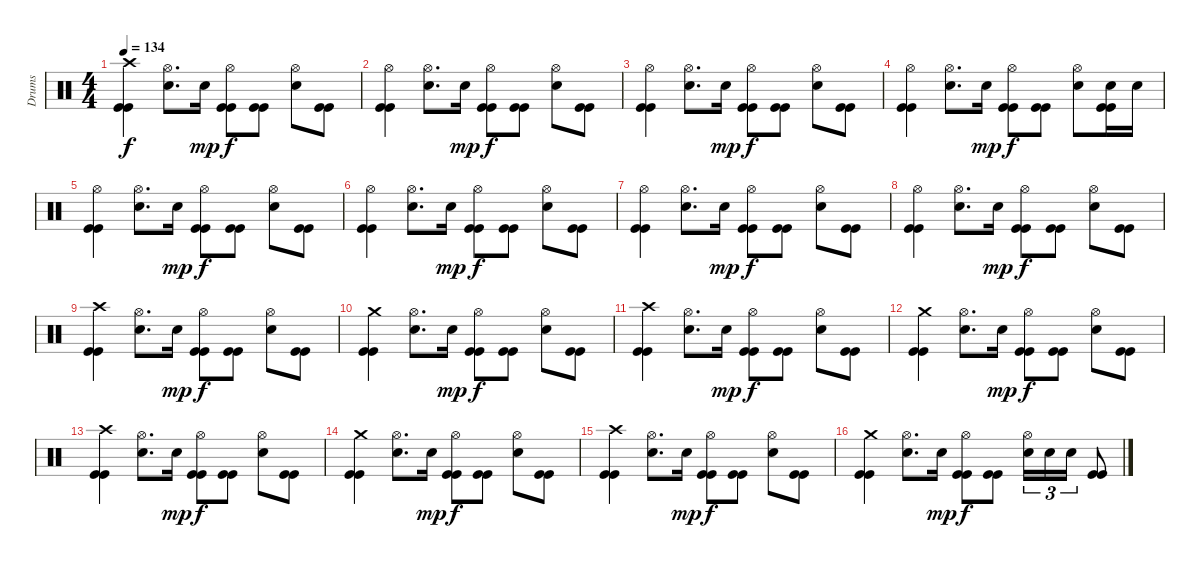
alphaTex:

\track ("Drums" "Drums") {instrument percussion}
\staff {score}
\articulation defaults
\ts (4 4)
\tempo 134
\clef neutral
\ks c
("Crash high (hit)" "Kick (hit)" "Kick (hit)").4{dy f} ("Hi-Hat (open)" "Electric Snare (hit)").8{d} "Electric Snare (hit)".16{dy mp} ("Hi-Hat (open)" "Kick (hit)" "Kick (hit)").8{dy f} ("Kick (hit)" "Kick (hit)").8 ("Hi-Hat (open)" "Electric Snare (hit)").8 ("Kick (hit)" "Kick (hit)").8 |
("Hi-Hat (open)" "Kick (hit)" "Kick (hit)").4 ("Hi-Hat (open)" "Electric Snare (hit)").8{d} "Electric Snare (hit)".16{dy mp} ("Hi-Hat (open)" "Kick (hit)" "Kick (hit)").8{dy f} ("Kick (hit)" "Kick (hit)").8 ("Hi-Hat (open)" "Electric Snare (hit)").8 ("Kick (hit)" "Kick (hit)").8 |
("Hi-Hat (open)" "Kick (hit)" "Kick (hit)").4 ("Hi-Hat (open)" "Electric Snare (hit)").8{d} "Electric Snare (hit)".16{dy mp} ("Hi-Hat (open)" "Kick (hit)" "Kick (hit)").8{dy f} ("Kick (hit)" "Kick (hit)").8 ("Hi-Hat (open)" "Electric Snare (hit)").8 ("Kick (hit)" "Kick (hit)").8 |
("Hi-Hat (open)" "Kick (hit)" "Kick (hit)").4 ("Hi-Hat (open)" "Electric Snare (hit)").8{d} "Electric Snare (hit)".16{dy mp} ("Hi-Hat (open)" "Kick (hit)" "Kick (hit)").8{dy f} ("Kick (hit)" "Kick (hit)").8 ("Hi-Hat (open)" "Electric Snare (hit)").8 ("Electric Snare (hit)" "Kick (hit)" "Kick (hit)").16 "Electric Snare (hit)".16 |
("Hi-Hat (open)" "Kick (hit)" "Kick (hit)").4 ("Hi-Hat (open)" "Electric Snare (hit)").8{d} "Electric Snare (hit)".16{dy mp} ("Hi-Hat (open)" "Kick (hit)" "Kick (hit)").8{dy f} ("Kick (hit)" "Kick (hit)").8 ("Hi-Hat (open)" "Electric Snare (hit)").8 ("Kick (hit)" "Kick (hit)").8 |
("Hi-Hat (open)" "Kick (hit)" "Kick (hit)").4 ("Hi-Hat (open)" "Electric Snare (hit)").8{d} "Electric Snare (hit)".16{dy mp} ("Hi-Hat (open)" "Kick (hit)" "Kick (hit)").8{dy f} ("Kick (hit)" "Kick (hit)").8 ("Hi-Hat (open)" "Electric Snare (hit)").8 ("Kick (hit)" "Kick (hit)").8 |
("Hi-Hat (open)" "Kick (hit)" "Kick (hit)").4 ("Hi-Hat (open)" "Electric Snare (hit)").8{d} "Electric Snare (hit)".16{dy mp} ("Hi-Hat (open)" "Kick (hit)" "Kick (hit)").8{dy f} ("Kick (hit)" "Kick (hit)").8 ("Hi-Hat (open)" "Electric Snare (hit)").8 ("Kick (hit)" "Kick (hit)").8 |
("Hi-Hat (open)" "Kick (hit)" "Kick (hit)").4 ("Hi-Hat (open)" "Electric Snare (hit)").8{d} "Electric Snare (hit)".16{dy mp} ("Hi-Hat (open)" "Kick (hit)" "Kick (hit)").8{dy f} ("Kick (hit)" "Kick (hit)").8 ("Hi-Hat (open)" "Electric Snare (hit)").8 ("Kick (hit)" "Kick (hit)").8 |
("Crash high (hit)" "Kick (hit)" "Kick (hit)").4 ("Hi-Hat (open)" "Electric Snare (hit)").8{d} "Electric Snare (hit)".16{dy mp} ("Hi-Hat (open)" "Kick (hit)" "Kick (hit)").8{dy f} ("Kick (hit)" "Kick (hit)").8 ("Hi-Hat (open)" "Electric Snare (hit)").8 ("Kick (hit)" "Kick (hit)").8 |
("Crash medium (hit)" "Kick (hit)" "Kick (hit)").4 ("Hi-Hat (open)" "Electric Snare (hit)").8{d} "Electric Snare (hit)".16{dy mp} ("Hi-Hat (open)" "Kick (hit)" "Kick (hit)").8{dy f} ("Kick (hit)" "Kick (hit)").8 ("Hi-Hat (open)" "Electric Snare (hit)").8 ("Kick (hit)" "Kick (hit)").8 |
("Crash high (hit)" "Kick (hit)" "Kick (hit)").4 ("Hi-Hat (open)" "Electric Snare (hit)").8{d} "Electric Snare (hit)".16{dy mp} ("Hi-Hat (open)" "Kick (hit)" "Kick (hit)").8{dy f} ("Kick (hit)" "Kick (hit)").8 ("Hi-Hat (open)" "Electric Snare (hit)").8 ("Kick (hit)" "Kick (hit)").8 |
("Crash medium (hit)" "Kick (hit)" "Kick (hit)").4 ("Hi-Hat (open)" "Electric Snare (hit)").8{d} "Electric Snare (hit)".16{dy mp} ("Hi-Hat (open)" "Kick (hit)" "Kick (hit)").8{dy f} ("Kick (hit)" "Kick (hit)").8 ("Hi-Hat (open)" "Electric Snare (hit)").8 ("Kick (hit)" "Kick (hit)").8 |
("Crash high (hit)" "Kick (hit)" "Kick (hit)").4 ("Hi-Hat (open)" "Electric Snare (hit)").8{d} "Electric Snare (hit)".16{dy mp} ("Hi-Hat (open)" "Kick (hit)" "Kick (hit)").8{dy f} ("Kick (hit)" "Kick (hit)").8 ("Hi-Hat (open)" "Electric Snare (hit)").8 ("Kick (hit)" "Kick (hit)").8 |
("Crash medium (hit)" "Kick (hit)" "Kick (hit)").4 ("Hi-Hat (open)" "Electric Snare (hit)").8{d} "Electric Snare (hit)".16{dy mp} ("Hi-Hat (open)" "Kick (hit)" "Kick (hit)").8{dy f} ("Kick (hit)" "Kick (hit)").8 ("Hi-Hat (open)" "Electric Snare (hit)").8 ("Kick (hit)" "Kick (hit)").8 |
("Crash high (hit)" "Kick (hit)" "Kick (hit)").4 ("Hi-Hat (open)" "Electric Snare (hit)").8{d} "Electric Snare (hit)".16{dy mp} ("Hi-Hat (open)" "Kick (hit)" "Kick (hit)").8{dy f} ("Kick (hit)" "Kick (hit)").8 ("Hi-Hat (open)" "Electric Snare (hit)").8 ("Kick (hit)" "Kick (hit)").8 |
("Crash medium (hit)" "Kick (hit)" "Kick (hit)").4 ("Hi-Hat (open)" "Electric Snare (hit)").8{d} "Electric Snare (hit)".16{dy mp} ("Hi-Hat (open)" "Kick (hit)" "Kick (hit)").8{dy f} ("Kick (hit)" "Kick (hit)").8 ("Hi-Hat (open)" "Electric Snare (hit)").16{tu (3 2)} "Electric Snare (hit)".16{tu (3 2)} "Electric Snare (hit)".16{tu (3 2)} ("Kick (hit)" "Kick (hit)").8
